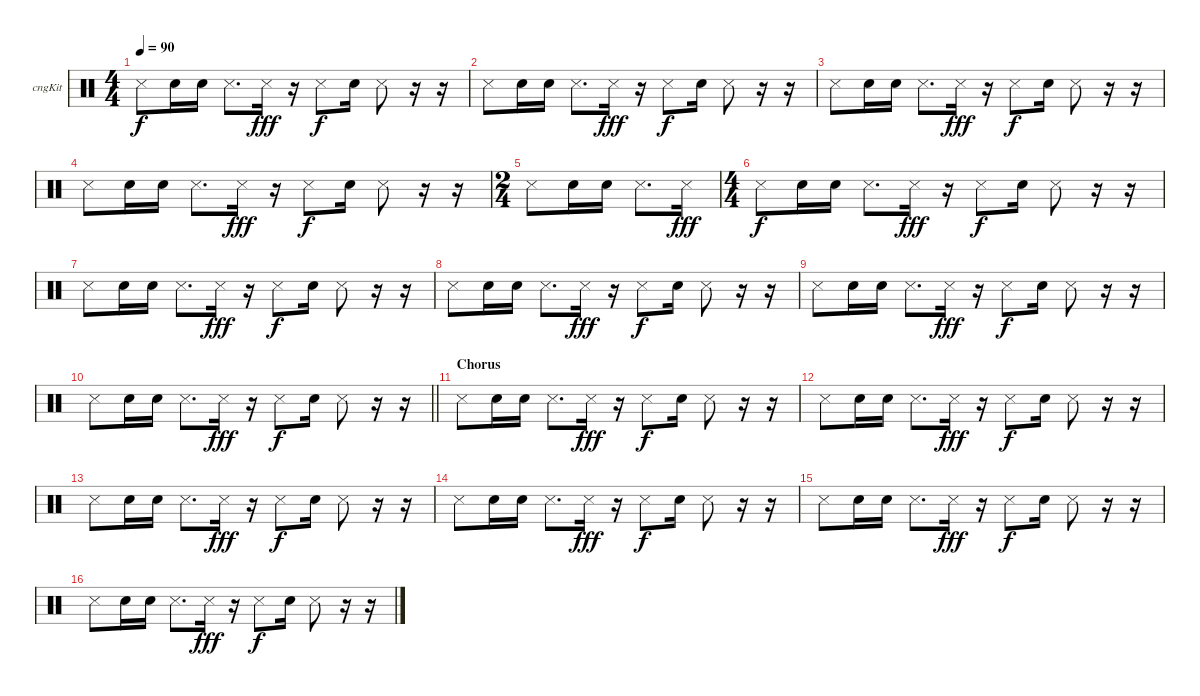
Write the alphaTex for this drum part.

\bracketExtendMode groupsimilarinstruments
\firstSystemTrackNameOrientation horizontal
\otherSystemsTrackNameOrientation horizontal
\track ("Congas" "cngKit") {multiBarRest instrument percussion}
\staff {score}
\articulation defaults
\ts (4 4)
\beaming (8 2 2 2 2)
\tempo 90
\clef neutral
\ks c "Snare (side stick) 3".8{dy f} "Snare (hit) 2".16 "Snare (hit) 2".16 "Snare (side stick) 3".8{d} "Snare (side stick) 3".16{dy fff}
r.16 "Snare (side stick) 3".8{dy f} "Snare (hit) 2".16 "Snare (side stick) 3".8 r.16 r.16 |
"Snare (side stick) 3".8 "Snare (hit) 2".16 "Snare (hit) 2".16 "Snare (side stick) 3".8{d} "Snare (side stick) 3".16{dy fff} r.16 "Snare (side stick) 3".8{dy f} "Snare (hit) 2".16 "Snare (side stick) 3".8 r.16 r.16 |
"Snare (side stick) 3".8 "Snare (hit) 2".16 "Snare (hit) 2".16 "Snare (side stick) 3".8{d} "Snare (side stick) 3".16{dy fff} r.16 "Snare (side stick) 3".8{dy f} "Snare (hit) 2".16 "Snare (side stick) 3".8 r.16 r.16 |
"Snare (side stick) 3".8 "Snare (hit) 2".16 "Snare (hit) 2".16 "Snare (side stick) 3".8{d} "Snare (side stick) 3".16{dy fff} r.16 "Snare (side stick) 3".8{dy f} "Snare (hit) 2".16 "Snare (side stick) 3".8 r.16 r.16 |
\ts (2 4)
\beaming (8 2 2)
"Snare (side stick) 3".8 "Snare (hit) 2".16 "Snare (hit) 2".16 "Snare (side stick) 3".8{d} "Snare (side stick) 3".16{dy fff} |
\ts (4 4)
\beaming (8 2 2 2 2)
"Snare (side stick) 3".8{dy f} "Snare (hit) 2".16 "Snare (hit) 2".16 "Snare (side stick) 3".8{d} "Snare (side stick) 3".16{dy fff} r.16 "Snare (side stick) 3".8{dy f} "Snare (hit) 2".16 "Snare (side stick) 3".8 r.16 r.16 |
"Snare (side stick) 3".8 "Snare (hit) 2".16 "Snare (hit) 2".16 "Snare (side stick) 3".8{d} "Snare (side stick) 3".16{dy fff} r.16 "Snare (side stick) 3".8{dy f} "Snare (hit) 2".16 "Snare (side stick) 3".8 r.16 r.16 |
"Snare (side stick) 3".8 "Snare (hit) 2".16 "Snare (hit) 2".16 "Snare (side stick) 3".8{d} "Snare (side stick) 3".16{dy fff} r.16 "Snare (side stick) 3".8{dy f} "Snare (hit) 2".16 "Snare (side stick) 3".8 r.16 r.16 |
"Snare (side stick) 3".8 "Snare (hit) 2".16 "Snare (hit) 2".16 "Snare (side stick) 3".8{d} "Snare (side stick) 3".16{dy fff} r.16 "Snare (side stick) 3".8{dy f} "Snare (hit) 2".16 "Snare (side stick) 3".8 r.16 r.16 |
\barLineRight lightlight "Snare (side stick) 3".8 "Snare (hit) 2".16 "Snare (hit) 2".16 "Snare (side stick) 3".8{d} "Snare (side stick) 3".16{dy fff}
r.16 "Snare (side stick) 3".8{dy f} "Snare (hit) 2".16 "Snare (side stick) 3".8 r.16 r.16 |
\section ("" "Chorus")
"Snare (side stick) 3".8 "Snare (hit) 2".16 "Snare (hit) 2".16 "Snare (side stick) 3".8{d} "Snare (side stick) 3".16{dy fff} r.16 "Snare (side stick) 3".8{dy f} "Snare (hit) 2".16 "Snare (side stick) 3".8 r.16 r.16 |
"Snare (side stick) 3".8 "Snare (hit) 2".16 "Snare (hit) 2".16 "Snare (side stick) 3".8{d} "Snare (side stick) 3".16{dy fff} r.16 "Snare (side stick) 3".8{dy f} "Snare (hit) 2".16 "Snare (side stick) 3".8 r.16 r.16 |
"Snare (side stick) 3".8 "Snare (hit) 2".16 "Snare (hit) 2".16 "Snare (side stick) 3".8{d} "Snare (side stick) 3".16{dy fff} r.16 "Snare (side stick) 3".8{dy f} "Snare (hit) 2".16 "Snare (side stick) 3".8 r.16 r.16 |
"Snare (side stick) 3".8 "Snare (hit) 2".16 "Snare (hit) 2".16 "Snare (side stick) 3".8{d} "Snare (side stick) 3".16{dy fff} r.16 "Snare (side stick) 3".8{dy f} "Snare (hit) 2".16 "Snare (side stick) 3".8 r.16 r.16 |
"Snare (side stick) 3".8 "Snare (hit) 2".16 "Snare (hit) 2".16 "Snare (side stick) 3".8{d} "Snare (side stick) 3".16{dy fff} r.16 "Snare (side stick) 3".8{dy f} "Snare (hit) 2".16 "Snare (side stick) 3".8 r.16 r.16 |
"Snare (side stick) 3".8 "Snare (hit) 2".16 "Snare (hit) 2".16 "Snare (side stick) 3".8{d} "Snare (side stick) 3".16{dy fff} r.16 "Snare (side stick) 3".8{dy f} "Snare (hit) 2".16 "Snare (side stick) 3".8 r.16 r.16
